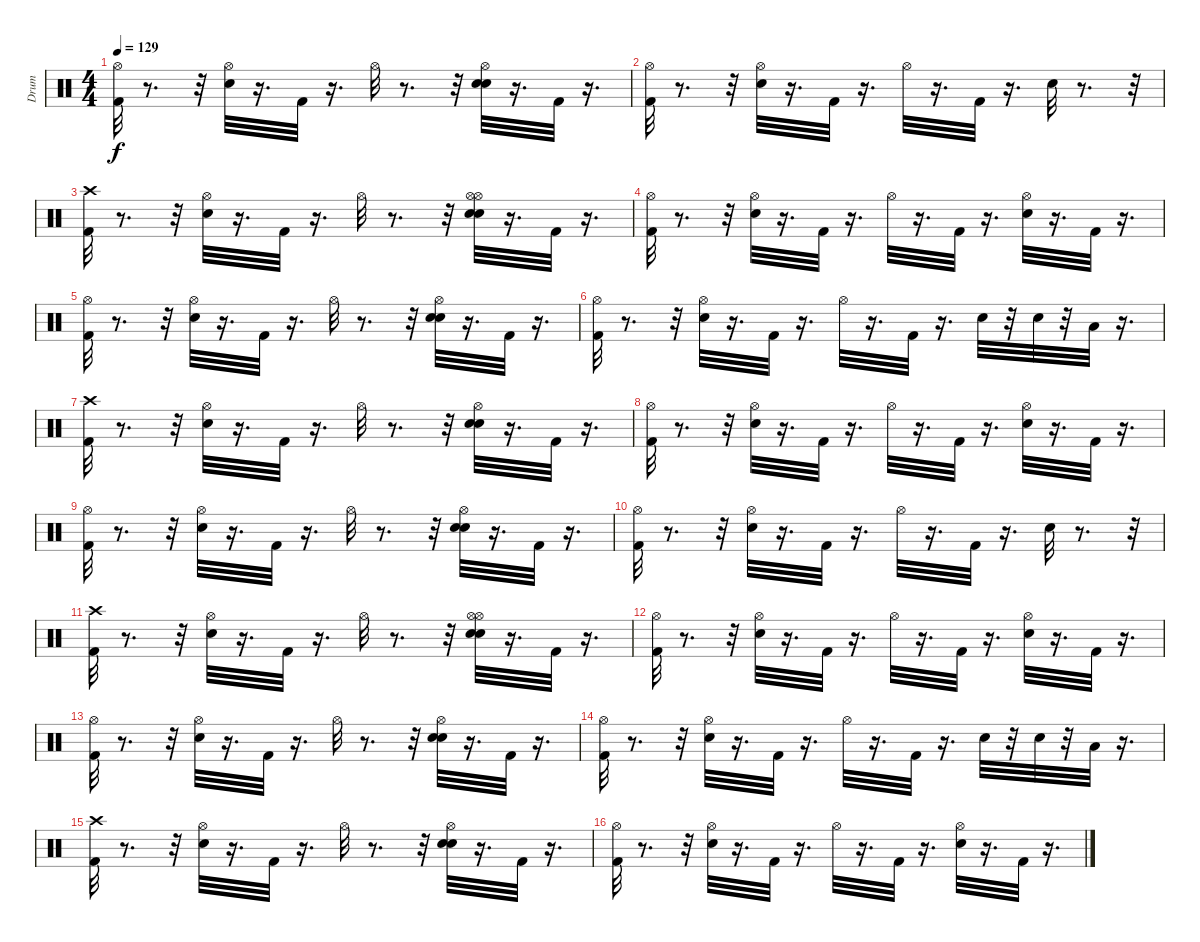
\track ("Drum" "Drum") {instrument percussion}
\staff {score}
\articulation defaults
\ts (4 4)
\tempo 129
\clef neutral
\ks c
("Hi-Hat (open)" "Kick (hit) 2").32{dy f} r.8{d} r.32 ("Snare (hit) 2" "Hi-Hat (open)").32 r.16{d} "Kick (hit) 2".32 r.16{d} "Hi-Hat (open)".32 r.8{d} r.32 ("Snare (hit) 2" "Hi-Hat (open)" "Snare (hit) 2").32 r.16{d} "Kick (hit) 2".32 r.16{d} |
("Hi-Hat (open)" "Kick (hit) 2").32 r.8{d} r.32 ("Snare (hit) 2" "Hi-Hat (open)").32 r.16{d} "Kick (hit) 2".32 r.16{d} "Hi-Hat (open)".32 r.16{d} "Kick (hit) 2".32 r.16{d} "Snare (hit) 2".32 r.8{d} r.32 |
("Kick (hit) 2" "Crash high (hit)").32 r.8{d} r.32 ("Snare (hit) 2" "Hi-Hat (open)").32 r.16{d} "Kick (hit) 2".32 r.16{d} "Hi-Hat (open)".32 r.8{d} r.32 ("Snare (hit) 2" "Hi-Hat (open)" "Snare (hit) 2" "Hi-Hat (open)").32 r.16{d} "Kick (hit) 2".32 r.16{d} |
("Kick (hit) 2" "Hi-Hat (open)").32 r.8{d} r.32 ("Snare (hit) 2" "Hi-Hat (open)").32 r.16{d} "Kick (hit) 2".32 r.16{d} "Hi-Hat (open)".32 r.16{d} "Kick (hit) 2".32 r.16{d} ("Snare (hit) 2" "Hi-Hat (open)").32 r.16{d} "Kick (hit) 2".32 r.16{d} |
("Hi-Hat (open)" "Kick (hit) 2").32 r.8{d} r.32 ("Snare (hit) 2" "Hi-Hat (open)").32 r.16{d} "Kick (hit) 2".32 r.16{d} "Hi-Hat (open)".32 r.8{d} r.32 ("Snare (hit) 2" "Hi-Hat (open)" "Snare (hit) 2").32 r.16{d} "Kick (hit) 2".32 r.16{d} |
("Kick (hit) 2" "Hi-Hat (open)").32 r.8{d} r.32 ("Snare (hit) 2" "Hi-Hat (open)").32 r.16{d} "Kick (hit) 2".32 r.16{d} "Hi-Hat (open)".32 r.16{d} "Kick (hit) 2".32 r.16{d} "Snare (hit) 2".32 r.32 "Snare (hit) 2".32 r.32 "Low Floor Tom (hit)".32 r.16{d} |
("Kick (hit) 2" "Crash high (hit)").32 r.8{d} r.32 ("Snare (hit) 2" "Hi-Hat (open)").32 r.16{d} "Kick (hit) 2".32 r.16{d} "Hi-Hat (open)".32 r.8{d} r.32 ("Snare (hit) 2" "Hi-Hat (open)" "Snare (hit) 2").32 r.16{d} "Kick (hit) 2".32 r.16{d} |
("Kick (hit) 2" "Hi-Hat (open)").32 r.8{d} r.32 ("Snare (hit) 2" "Hi-Hat (open)").32 r.16{d} "Kick (hit) 2".32 r.16{d} "Hi-Hat (open)".32 r.16{d} "Kick (hit) 2".32 r.16{d} ("Hi-Hat (open)" "Snare (hit) 2").32 r.16{d} "Kick (hit) 2".32 r.16{d} |
("Hi-Hat (open)" "Kick (hit) 2").32 r.8{d} r.32 ("Snare (hit) 2" "Hi-Hat (open)").32 r.16{d} "Kick (hit) 2".32 r.16{d} "Hi-Hat (open)".32 r.8{d} r.32 ("Snare (hit) 2" "Snare (hit) 2" "Hi-Hat (open)").32 r.16{d} "Kick (hit) 2".32 r.16{d} |
("Hi-Hat (open)" "Kick (hit) 2").32 r.8{d} r.32 ("Snare (hit) 2" "Hi-Hat (open)").32 r.16{d} "Kick (hit) 2".32 r.16{d} "Hi-Hat (open)".32 r.16{d} "Kick (hit) 2".32 r.16{d} "Snare (hit) 2".32 r.8{d} r.32 |
("Kick (hit) 2" "Crash high (hit)").32 r.8{d} r.32 ("Snare (hit) 2" "Hi-Hat (open)").32 r.16{d} "Kick (hit) 2".32 r.16{d} "Hi-Hat (open)".32 r.8{d} r.32 ("Snare (hit) 2" "Hi-Hat (open)" "Snare (hit) 2" "Hi-Hat (open)").32 r.16{d} "Kick (hit) 2".32 r.16{d} |
("Kick (hit) 2" "Hi-Hat (open)").32 r.8{d} r.32 ("Snare (hit) 2" "Hi-Hat (open)").32 r.16{d} "Kick (hit) 2".32 r.16{d} "Hi-Hat (open)".32 r.16{d} "Kick (hit) 2".32 r.16{d} ("Snare (hit) 2" "Hi-Hat (open)").32 r.16{d} "Kick (hit) 2".32 r.16{d} |
("Hi-Hat (open)" "Kick (hit) 2").32 r.8{d} r.32 ("Snare (hit) 2" "Hi-Hat (open)").32 r.16{d} "Kick (hit) 2".32 r.16{d} "Hi-Hat (open)".32 r.8{d} r.32 ("Snare (hit) 2" "Hi-Hat (open)" "Snare (hit) 2").32 r.16{d} "Kick (hit) 2".32 r.16{d} |
("Kick (hit) 2" "Hi-Hat (open)").32 r.8{d} r.32 ("Snare (hit) 2" "Hi-Hat (open)").32 r.16{d} "Kick (hit) 2".32 r.16{d} "Hi-Hat (open)".32 r.16{d} "Kick (hit) 2".32 r.16{d} "Snare (hit) 2".32 r.32 "Snare (hit) 2".32 r.32 "Low Floor Tom (hit)".32 r.16{d} |
("Kick (hit) 2" "Crash high (hit)").32 r.8{d} r.32 ("Snare (hit) 2" "Hi-Hat (open)").32 r.16{d} "Kick (hit) 2".32 r.16{d} "Hi-Hat (open)".32 r.8{d} r.32 ("Snare (hit) 2" "Hi-Hat (open)" "Snare (hit) 2").32 r.16{d} "Kick (hit) 2".32 r.16{d} |
("Kick (hit) 2" "Hi-Hat (open)").32 r.8{d} r.32 ("Snare (hit) 2" "Hi-Hat (open)").32 r.16{d} "Kick (hit) 2".32 r.16{d} "Hi-Hat (open)".32 r.16{d} "Kick (hit) 2".32 r.16{d} ("Hi-Hat (open)" "Snare (hit) 2").32 r.16{d} "Kick (hit) 2".32 r.16{d}
